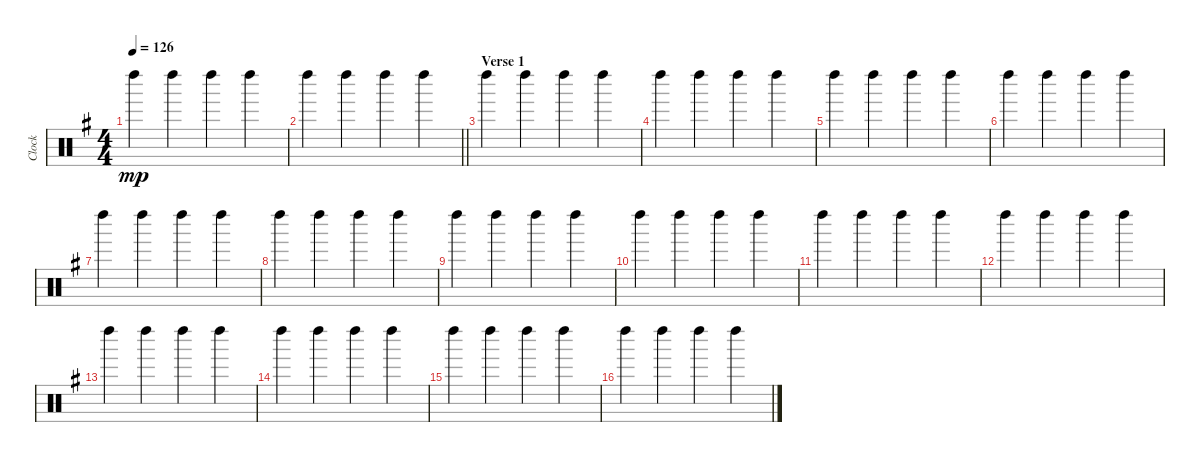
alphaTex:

\track ("Clock" "Clock") {instrument percussion}
\staff {score}
\articulation defaults
\ts (4 4)
\tempo 126
\clef neutral
\ks eminor "Left Maraca (hit)".4{dy mp} "Left Maraca (hit)".4 "Left Maraca (hit)".4 "Left Maraca (hit)".4
|
\barLineRight lightlight "Left Maraca (hit)".4 "Left Maraca (hit)".4 "Left Maraca (hit)".4 "Left Maraca (hit)".4
|
\section ("" "Verse 1")
"Left Maraca (hit)".4 "Left Maraca (hit)".4 "Left Maraca (hit)".4 "Left Maraca (hit)".4 |
"Left Maraca (hit)".4 "Left Maraca (hit)".4 "Left Maraca (hit)".4 "Left Maraca (hit)".4 |
"Left Maraca (hit)".4 "Left Maraca (hit)".4 "Left Maraca (hit)".4 "Left Maraca (hit)".4 |
"Left Maraca (hit)".4 "Left Maraca (hit)".4 "Left Maraca (hit)".4 "Left Maraca (hit)".4 |
"Left Maraca (hit)".4 "Left Maraca (hit)".4 "Left Maraca (hit)".4 "Left Maraca (hit)".4 |
"Left Maraca (hit)".4 "Left Maraca (hit)".4 "Left Maraca (hit)".4 "Left Maraca (hit)".4 |
"Left Maraca (hit)".4 "Left Maraca (hit)".4 "Left Maraca (hit)".4 "Left Maraca (hit)".4 |
"Left Maraca (hit)".4 "Left Maraca (hit)".4 "Left Maraca (hit)".4 "Left Maraca (hit)".4 |
"Left Maraca (hit)".4 "Left Maraca (hit)".4 "Left Maraca (hit)".4 "Left Maraca (hit)".4 |
"Left Maraca (hit)".4 "Left Maraca (hit)".4 "Left Maraca (hit)".4 "Left Maraca (hit)".4 |
"Left Maraca (hit)".4 "Left Maraca (hit)".4 "Left Maraca (hit)".4 "Left Maraca (hit)".4 |
"Left Maraca (hit)".4 "Left Maraca (hit)".4 "Left Maraca (hit)".4 "Left Maraca (hit)".4 |
"Left Maraca (hit)".4 "Left Maraca (hit)".4 "Left Maraca (hit)".4 "Left Maraca (hit)".4 |
"Left Maraca (hit)".4 "Left Maraca (hit)".4 "Left Maraca (hit)".4 "Left Maraca (hit)".4
